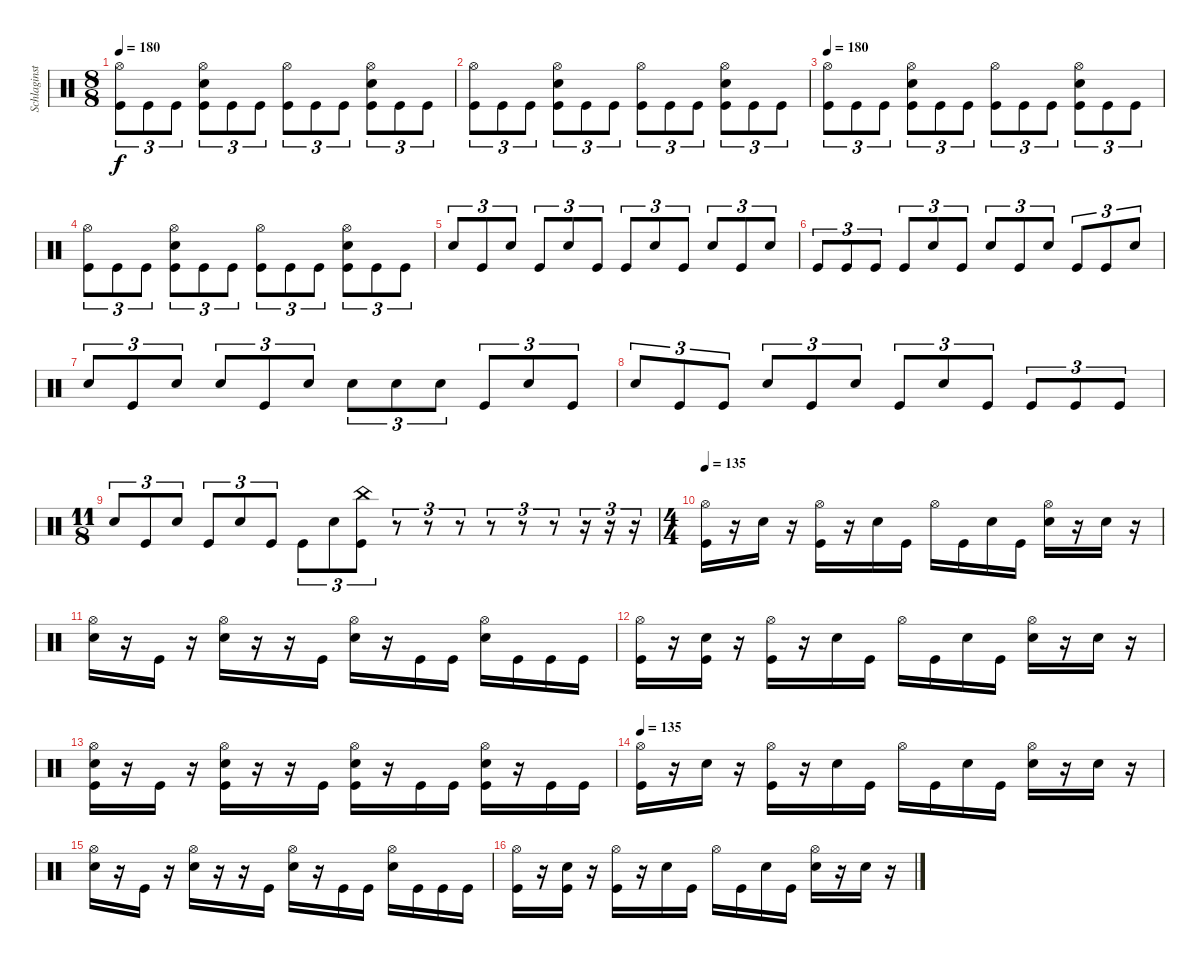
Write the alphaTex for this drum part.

\track ("Schlaginstrumente - Auswahl" "Schlaginst") {instrument percussion}
\staff {score}
\articulation defaults
\ts (8 8)
\tempo 180
\clef neutral
\ks c
("Hi-Hat (open)" "Kick (hit)").8{tu (3 2) dy f} "Kick (hit)".8{tu (3 2)} "Kick (hit)".8{tu (3 2)} ("Hi-Hat (open)" "Electric Snare (hit)" "Kick (hit)").8{tu (3 2)} "Kick (hit)".8{tu (3 2)} "Kick (hit)".8{tu (3 2)} ("Hi-Hat (open)" "Kick (hit)").8{tu (3 2)} "Kick (hit)".8{tu (3 2)} "Kick (hit)".8{tu (3 2)} ("Hi-Hat (open)" "Electric Snare (hit)" "Kick (hit)").8{tu (3 2)} "Kick (hit)".8{tu (3 2)} "Kick (hit)".8{tu (3 2)} |
("Hi-Hat (open)" "Kick (hit)").8{tu (3 2)} "Kick (hit)".8{tu (3 2)} "Kick (hit)".8{tu (3 2)} ("Hi-Hat (open)" "Electric Snare (hit)" "Kick (hit)").8{tu (3 2)} "Kick (hit)".8{tu (3 2)} "Kick (hit)".8{tu (3 2)} ("Hi-Hat (open)" "Kick (hit)").8{tu (3 2)} "Kick (hit)".8{tu (3 2)} "Kick (hit)".8{tu (3 2)} ("Hi-Hat (open)" "Electric Snare (hit)" "Kick (hit)").8{tu (3 2)} "Kick (hit)".8{tu (3 2)} "Kick (hit)".8{tu (3 2)} |
\tempo 180
("Hi-Hat (open)" "Kick (hit)").8{tu (3 2)} "Kick (hit)".8{tu (3 2)} "Kick (hit)".8{tu (3 2)} ("Hi-Hat (open)" "Electric Snare (hit)" "Kick (hit)").8{tu (3 2)} "Kick (hit)".8{tu (3 2)} "Kick (hit)".8{tu (3 2)} ("Hi-Hat (open)" "Kick (hit)").8{tu (3 2)} "Kick (hit)".8{tu (3 2)} "Kick (hit)".8{tu (3 2)} ("Hi-Hat (open)" "Electric Snare (hit)" "Kick (hit)").8{tu (3 2)} "Kick (hit)".8{tu (3 2)} "Kick (hit)".8{tu (3 2)} |
("Hi-Hat (open)" "Kick (hit)").8{tu (3 2)} "Kick (hit)".8{tu (3 2)} "Kick (hit)".8{tu (3 2)} ("Hi-Hat (open)" "Electric Snare (hit)" "Kick (hit)").8{tu (3 2)} "Kick (hit)".8{tu (3 2)} "Kick (hit)".8{tu (3 2)} ("Hi-Hat (open)" "Kick (hit)").8{tu (3 2)} "Kick (hit)".8{tu (3 2)} "Kick (hit)".8{tu (3 2)} ("Hi-Hat (open)" "Electric Snare (hit)" "Kick (hit)").8{tu (3 2)} "Kick (hit)".8{tu (3 2)} "Kick (hit)".8{tu (3 2)} |
"Electric Snare (hit)".8{tu (3 2)} "Kick (hit)".8{tu (3 2)} "Electric Snare (hit)".8{tu (3 2)} "Kick (hit)".8{tu (3 2)} "Electric Snare (hit)".8{tu (3 2)} "Kick (hit)".8{tu (3 2)} "Kick (hit)".8{tu (3 2)} "Electric Snare (hit)".8{tu (3 2)} "Kick (hit)".8{tu (3 2)} "Electric Snare (hit)".8{tu (3 2)} "Kick (hit)".8{tu (3 2)} "Electric Snare (hit)".8{tu (3 2)} |
"Kick (hit)".8{tu (3 2)} "Kick (hit)".8{tu (3 2)} "Kick (hit)".8{tu (3 2)} "Kick (hit)".8{tu (3 2)} "Electric Snare (hit)".8{tu (3 2)} "Kick (hit)".8{tu (3 2)} "Electric Snare (hit)".8{tu (3 2)} "Kick (hit)".8{tu (3 2)} "Electric Snare (hit)".8{tu (3 2)} "Kick (hit)".8{tu (3 2)} "Kick (hit)".8{tu (3 2)} "Electric Snare (hit)".8{tu (3 2)} |
"Electric Snare (hit)".8{tu (3 2)} "Kick (hit)".8{tu (3 2)} "Electric Snare (hit)".8{tu (3 2)} "Electric Snare (hit)".8{tu (3 2)} "Kick (hit)".8{tu (3 2)} "Electric Snare (hit)".8{tu (3 2)} "Electric Snare (hit)".8{tu (3 2)} "Electric Snare (hit)".8{tu (3 2)} "Electric Snare (hit)".8{tu (3 2)} "Kick (hit)".8{tu (3 2)} "Electric Snare (hit)".8{tu (3 2)} "Kick (hit)".8{tu (3 2)} |
"Electric Snare (hit)".8{tu (3 2)} "Kick (hit)".8{tu (3 2)} "Kick (hit)".8{tu (3 2)} "Electric Snare (hit)".8{tu (3 2)} "Kick (hit)".8{tu (3 2)} "Electric Snare (hit)".8{tu (3 2)} "Kick (hit)".8{tu (3 2)} "Electric Snare (hit)".8{tu (3 2)} "Kick (hit)".8{tu (3 2)} "Kick (hit)".8{tu (3 2)} "Kick (hit)".8{tu (3 2)} "Kick (hit)".8{tu (3 2)} |
\ts (11 8)
"Electric Snare (hit)".8{tu (3 2)} "Kick (hit)".8{tu (3 2)} "Electric Snare (hit)".8{tu (3 2)} "Kick (hit)".8{tu (3 2)} "Electric Snare (hit)".8{tu (3 2)} "Kick (hit)".8{tu (3 2)} "Kick (hit)".8{tu (3 2)} "Electric Snare (hit)".8{tu (3 2)} ("China (hit)" "Kick (hit)").8{tu (3 2)} r.8{tu (3 2)} r.8{tu (3 2)} r.8{tu (3 2)} r.8{tu (3 2)} r.8{tu (3 2)} r.8{tu (3 2)} r.16{tu (3 2)} r.16{tu (3 2)} r.16{tu (3 2)} |
\ts (4 4)
\tempo 135
("Hi-Hat (open)" "Kick (hit)").16 r.16 "Electric Snare (hit)".16 r.16 ("Hi-Hat (open)" "Kick (hit)").16 r.16 "Electric Snare (hit)".16 "Kick (hit)".16 "Hi-Hat (open)".16 "Kick (hit)".16 "Electric Snare (hit)".16 "Kick (hit)".16 ("Hi-Hat (open)" "Electric Snare (hit)").16 r.16 "Electric Snare (hit)".16 r.16 |
("Hi-Hat (open)" "Electric Snare (hit)").16 r.16 "Kick (hit)".16 r.16 ("Hi-Hat (open)" "Electric Snare (hit)").16 r.16 r.16 "Kick (hit)".16 ("Hi-Hat (open)" "Electric Snare (hit)").16 r.16 "Kick (hit)".16 "Kick (hit)".16 ("Hi-Hat (open)" "Electric Snare (hit)").16 "Kick (hit)".16 "Kick (hit)".16 "Kick (hit)".16 |
("Hi-Hat (open)" "Kick (hit)").16 r.16 ("Electric Snare (hit)" "Kick (hit)").16 r.16 ("Hi-Hat (open)" "Kick (hit)").16 r.16 "Electric Snare (hit)".16 "Kick (hit)".16 "Hi-Hat (open)".16 "Kick (hit)".16 "Electric Snare (hit)".16 "Kick (hit)".16 ("Hi-Hat (open)" "Electric Snare (hit)").16 r.16 "Electric Snare (hit)".16 r.16 |
("Hi-Hat (open)" "Electric Snare (hit)" "Kick (hit)").16 r.16 "Kick (hit)".16 r.16 ("Hi-Hat (open)" "Electric Snare (hit)" "Kick (hit)").16 r.16 r.16 "Kick (hit)".16 ("Hi-Hat (open)" "Electric Snare (hit)" "Kick (hit)").16 r.16 "Kick (hit)".16 "Kick (hit)".16 ("Hi-Hat (open)" "Electric Snare (hit)" "Kick (hit)").16 r.16 "Kick (hit)".16 "Kick (hit)".16 |
\tempo 135
("Hi-Hat (open)" "Kick (hit)").16 r.16 "Electric Snare (hit)".16 r.16 ("Hi-Hat (open)" "Kick (hit)").16 r.16 "Electric Snare (hit)".16 "Kick (hit)".16 "Hi-Hat (open)".16 "Kick (hit)".16 "Electric Snare (hit)".16 "Kick (hit)".16 ("Hi-Hat (open)" "Electric Snare (hit)").16 r.16 "Electric Snare (hit)".16 r.16 |
("Hi-Hat (open)" "Electric Snare (hit)").16 r.16 "Kick (hit)".16 r.16 ("Hi-Hat (open)" "Electric Snare (hit)").16 r.16 r.16 "Kick (hit)".16 ("Hi-Hat (open)" "Electric Snare (hit)").16 r.16 "Kick (hit)".16 "Kick (hit)".16 ("Hi-Hat (open)" "Electric Snare (hit)").16 "Kick (hit)".16 "Kick (hit)".16 "Kick (hit)".16 |
("Hi-Hat (open)" "Kick (hit)").16 r.16 ("Electric Snare (hit)" "Kick (hit)").16 r.16 ("Hi-Hat (open)" "Kick (hit)").16 r.16 "Electric Snare (hit)".16 "Kick (hit)".16 "Hi-Hat (open)".16 "Kick (hit)".16 "Electric Snare (hit)".16 "Kick (hit)".16 ("Hi-Hat (open)" "Electric Snare (hit)").16 r.16 "Electric Snare (hit)".16 r.16
